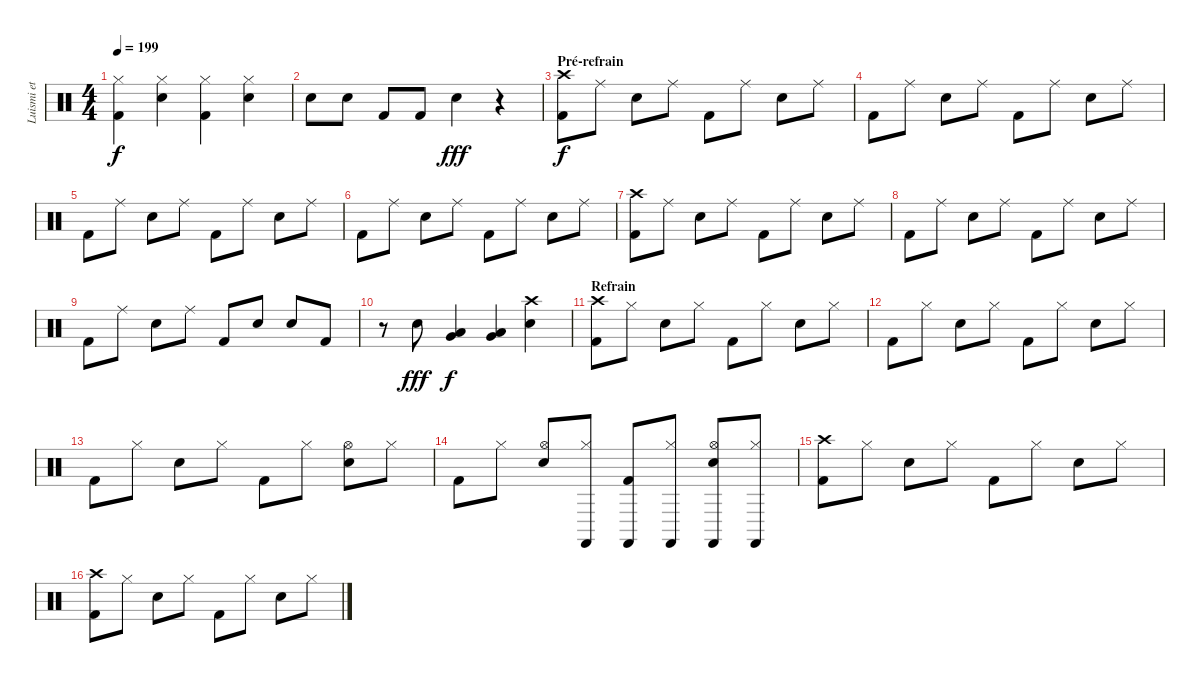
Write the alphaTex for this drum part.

\track ("Luismi et ses castagnettes" "Luismi et ") {instrument percussion}
\staff {score}
\articulation defaults
\ts (4 4)
\tempo 199
\clef neutral
\ks c
("Hi-Hat (closed)" "Kick (hit) 2").4{dy f} ("Hi-Hat (closed)" "Snare (hit) 2").4 ("Hi-Hat (closed)" "Kick (hit) 2").4 ("Hi-Hat (closed)" "Snare (hit) 2").4 |
"Snare (hit) 2".8 "Snare (hit) 2".8 "Kick (hit) 2".8 "Kick (hit) 2".8 "Snare (hit) 2".4{dy fff} r.4 |
\section ("" "Pré-refrain")
("Crash high (hit)" "Kick (hit) 2").8{dy f} "Ride (middle)".8 "Snare (hit) 2".8 "Ride (middle)".8 "Kick (hit) 2".8 "Ride (middle)".8 "Snare (hit) 2".8 "Ride (middle)".8 |
"Kick (hit) 2".8 "Ride (middle)".8 "Snare (hit) 2".8 "Ride (middle)".8 "Kick (hit) 2".8 "Ride (middle)".8 "Snare (hit) 2".8 "Ride (middle)".8 |
"Kick (hit) 2".8 "Ride (middle)".8 "Snare (hit) 2".8 "Ride (middle)".8 "Kick (hit) 2".8 "Ride (middle)".8 "Snare (hit) 2".8 "Ride (middle)".8 |
"Kick (hit) 2".8 "Ride (middle)".8 "Snare (hit) 2".8 "Ride (middle)".8 "Kick (hit) 2".8 "Ride (middle)".8 "Snare (hit) 2".8 "Ride (middle)".8 |
("Crash high (hit)" "Kick (hit) 2").8 "Ride (middle)".8 "Snare (hit) 2".8 "Ride (middle)".8 "Kick (hit) 2".8 "Ride (middle)".8 "Snare (hit) 2".8 "Ride (middle)".8 |
"Kick (hit) 2".8 "Ride (middle)".8 "Snare (hit) 2".8 "Ride (middle)".8 "Kick (hit) 2".8 "Ride (middle)".8 "Snare (hit) 2".8 "Ride (middle)".8 |
"Kick (hit) 2".8 "Ride (middle)".8 "Snare (hit) 2".8 "Ride (middle)".8 "Kick (hit) 2".8 "Snare (hit) 2".8 "Snare (hit) 2".8 "Kick (hit) 2".8 |
r.8 "Snare (hit) 2".8{dy fff} ("Low Tom (hit)" "Very Low Tom (hit)").4{dy f} ("Low Tom (hit)" "Very Low Tom (hit)").4 ("Crash high (hit)" "Snare (hit) 2").4 |
\section ("" "Refrain")
("Crash high (hit)" "Kick (hit) 2").8 "Hi-Hat (closed)".8 "Snare (hit) 2".8 "Hi-Hat (closed)".8 "Kick (hit) 2".8 "Hi-Hat (closed)".8 "Snare (hit) 2".8 "Hi-Hat (closed)".8 |
"Kick (hit) 2".8 "Hi-Hat (closed)".8 "Snare (hit) 2".8 "Hi-Hat (closed)".8 "Kick (hit) 2".8 "Hi-Hat (closed)".8 "Snare (hit) 2".8 "Hi-Hat (closed)".8 |
"Kick (hit) 2".8 "Hi-Hat (closed)".8 "Snare (hit) 2".8 "Hi-Hat (closed)".8 "Kick (hit) 2".8 "Hi-Hat (closed)".8 ("Hi-Hat (open)" "Snare (hit) 2").8 "Hi-Hat (closed)".8 |
"Kick (hit) 2".8 "Hi-Hat (closed)".8 ("Hi-Hat (open)" "Snare (hit) 2").8 ("Hi-Hat (closed)" "Castanets (hit)").8 ("Castanets (hit)" "Kick (hit) 2").8 ("Hi-Hat (closed)" "Castanets (hit)").8 ("Hi-Hat (open)" "Castanets (hit)" "Snare (hit) 2").8 ("Hi-Hat (closed)" "Castanets (hit)").8 |
("Crash high (hit)" "Kick (hit) 2").8 "Hi-Hat (closed)".8 "Snare (hit) 2".8 "Hi-Hat (closed)".8 "Kick (hit) 2".8 "Hi-Hat (closed)".8 "Snare (hit) 2".8 "Hi-Hat (closed)".8 |
("Crash high (hit)" "Kick (hit) 2").8 "Hi-Hat (closed)".8 "Snare (hit) 2".8 "Hi-Hat (closed)".8 "Kick (hit) 2".8 "Hi-Hat (closed)".8 "Snare (hit) 2".8 "Hi-Hat (closed)".8
